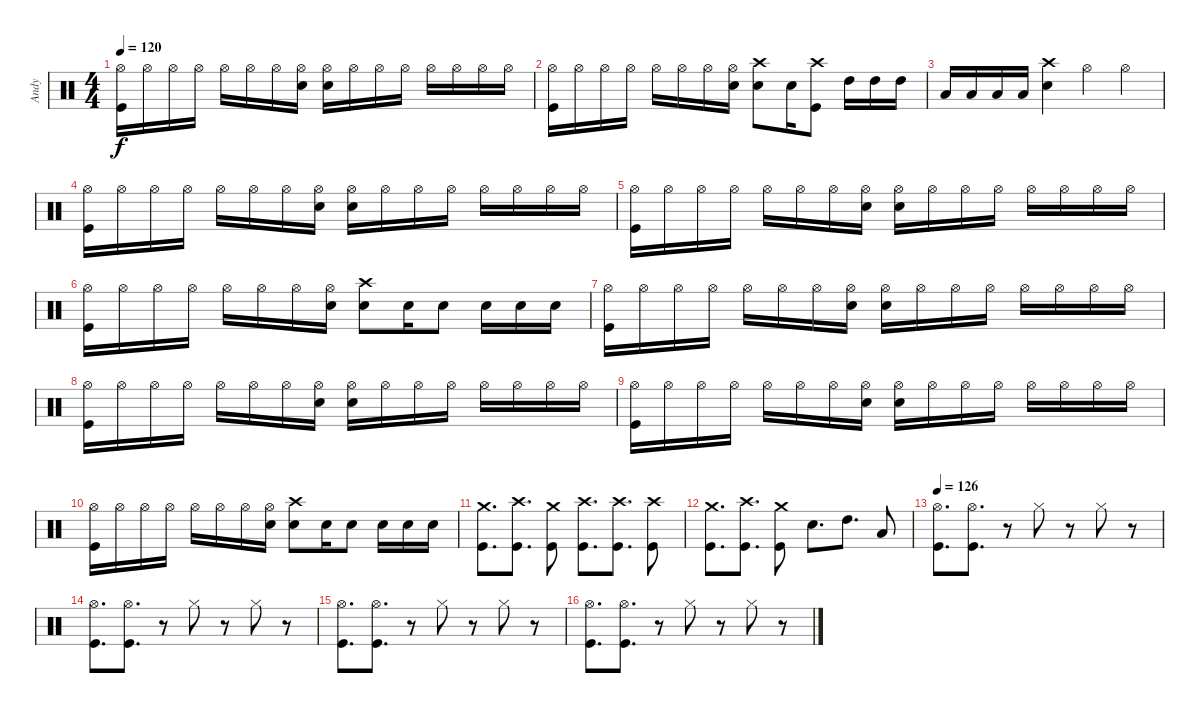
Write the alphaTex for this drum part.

\track ("Andy" "Andy") {instrument percussion}
\staff {score}
\articulation defaults
\ts (4 4)
\tempo 120
\clef neutral
\ks c
("Kick (hit)" "Hi-Hat (open)").16{dy f} "Hi-Hat (open)".16 "Hi-Hat (open)".16 "Hi-Hat (open)".16 "Hi-Hat (open)".16 "Hi-Hat (open)".16 "Hi-Hat (open)".16 ("Hi-Hat (open)" "Snare (hit) 2").16 ("Hi-Hat (open)" "Snare (hit) 2").16 "Hi-Hat (open)".16 "Hi-Hat (open)".16 "Hi-Hat (open)".16 "Hi-Hat (open)".16 "Hi-Hat (open)".16 "Hi-Hat (open)".16 "Hi-Hat (open)".16 |
("Kick (hit)" "Hi-Hat (open)").16 "Hi-Hat (open)".16 "Hi-Hat (open)".16 "Hi-Hat (open)".16 "Hi-Hat (open)".16 "Hi-Hat (open)".16 "Hi-Hat (open)".16 ("Hi-Hat (open)" "Snare (hit) 2").16 ("Snare (hit) 2" "Crash high (hit)").8 "Snare (hit) 2".16 ("Kick (hit)" "Crash high (hit)").8 "High Tom (hit)".16 "High Tom (hit)".16 "High Tom (hit)".16 |
"Low Floor Tom (hit)".16 "Low Floor Tom (hit)".16 "Low Floor Tom (hit)".16 "Low Floor Tom (hit)".16 ("Snare (hit) 2" "Crash high (hit)").4 "Hi-Hat (open)".4 "Hi-Hat (open)".4 |
("Kick (hit)" "Hi-Hat (open)").16 "Hi-Hat (open)".16 "Hi-Hat (open)".16 "Hi-Hat (open)".16 "Hi-Hat (open)".16 "Hi-Hat (open)".16 "Hi-Hat (open)".16 ("Hi-Hat (open)" "Snare (hit) 2").16 ("Hi-Hat (open)" "Snare (hit) 2").16 "Hi-Hat (open)".16 "Hi-Hat (open)".16 "Hi-Hat (open)".16 "Hi-Hat (open)".16 "Hi-Hat (open)".16 "Hi-Hat (open)".16 "Hi-Hat (open)".16 |
("Kick (hit)" "Hi-Hat (open)").16 "Hi-Hat (open)".16 "Hi-Hat (open)".16 "Hi-Hat (open)".16 "Hi-Hat (open)".16 "Hi-Hat (open)".16 "Hi-Hat (open)".16 ("Hi-Hat (open)" "Snare (hit) 2").16 ("Hi-Hat (open)" "Snare (hit) 2").16 "Hi-Hat (open)".16 "Hi-Hat (open)".16 "Hi-Hat (open)".16 "Hi-Hat (open)".16 "Hi-Hat (open)".16 "Hi-Hat (open)".16 "Hi-Hat (open)".16 |
("Kick (hit)" "Hi-Hat (open)").16 "Hi-Hat (open)".16 "Hi-Hat (open)".16 "Hi-Hat (open)".16 "Hi-Hat (open)".16 "Hi-Hat (open)".16 "Hi-Hat (open)".16 ("Hi-Hat (open)" "Snare (hit) 2").16 ("Snare (hit) 2" "Crash high (hit)").8 "Snare (hit) 2".16 "Snare (hit) 2".8 "Snare (hit) 2".16 "Snare (hit) 2".16 "Snare (hit) 2".16 |
("Kick (hit)" "Hi-Hat (open)").16 "Hi-Hat (open)".16 "Hi-Hat (open)".16 "Hi-Hat (open)".16 "Hi-Hat (open)".16 "Hi-Hat (open)".16 "Hi-Hat (open)".16 ("Hi-Hat (open)" "Snare (hit) 2").16 ("Hi-Hat (open)" "Snare (hit) 2").16 "Hi-Hat (open)".16 "Hi-Hat (open)".16 "Hi-Hat (open)".16 "Hi-Hat (open)".16 "Hi-Hat (open)".16 "Hi-Hat (open)".16 "Hi-Hat (open)".16 |
("Kick (hit)" "Hi-Hat (open)").16 "Hi-Hat (open)".16 "Hi-Hat (open)".16 "Hi-Hat (open)".16 "Hi-Hat (open)".16 "Hi-Hat (open)".16 "Hi-Hat (open)".16 ("Hi-Hat (open)" "Snare (hit) 2").16 ("Hi-Hat (open)" "Snare (hit) 2").16 "Hi-Hat (open)".16 "Hi-Hat (open)".16 "Hi-Hat (open)".16 "Hi-Hat (open)".16 "Hi-Hat (open)".16 "Hi-Hat (open)".16 "Hi-Hat (open)".16 |
("Kick (hit)" "Hi-Hat (open)").16 "Hi-Hat (open)".16 "Hi-Hat (open)".16 "Hi-Hat (open)".16 "Hi-Hat (open)".16 "Hi-Hat (open)".16 "Hi-Hat (open)".16 ("Hi-Hat (open)" "Snare (hit) 2").16 ("Hi-Hat (open)" "Snare (hit) 2").16 "Hi-Hat (open)".16 "Hi-Hat (open)".16 "Hi-Hat (open)".16 "Hi-Hat (open)".16 "Hi-Hat (open)".16 "Hi-Hat (open)".16 "Hi-Hat (open)".16 |
("Kick (hit)" "Hi-Hat (open)").16 "Hi-Hat (open)".16 "Hi-Hat (open)".16 "Hi-Hat (open)".16 "Hi-Hat (open)".16 "Hi-Hat (open)".16 "Hi-Hat (open)".16 ("Hi-Hat (open)" "Snare (hit) 2").16 ("Snare (hit) 2" "Crash high (hit)").8 "Snare (hit) 2".16 "Snare (hit) 2".8 "Snare (hit) 2".16 "Snare (hit) 2".16 "Snare (hit) 2".16 |
("Kick (hit)" "Crash medium (hit)").8{d} ("Crash high (hit)" "Kick (hit)").8{d} ("Crash medium (hit)" "Kick (hit)").8 ("Kick (hit)" "Crash high (hit)").8{d} ("Kick (hit)" "Crash high (hit)").8{d} ("Kick (hit)" "Crash high (hit)").8 |
("Kick (hit)" "Crash medium (hit)").8{d} ("Crash high (hit)" "Kick (hit)").8{d} ("Crash medium (hit)" "Kick (hit)").8 "Snare (hit) 2".8{d} "High Tom (hit)".8{d} "Low Floor Tom (hit)".8 |
\tempo 126
("Kick (hit)" "Hi-Hat (open)").8{d} ("Hi-Hat (open)" "Kick (hit)").8{d} r.8 "Hi-Hat (closed)".8 r.8 "Hi-Hat (closed)".8 r.8 |
("Kick (hit)" "Hi-Hat (open)").8{d} ("Hi-Hat (open)" "Kick (hit)").8{d} r.8 "Hi-Hat (closed)".8 r.8 "Hi-Hat (closed)".8 r.8 |
("Kick (hit)" "Hi-Hat (open)").8{d} ("Hi-Hat (open)" "Kick (hit)").8{d} r.8 "Hi-Hat (closed)".8 r.8 "Hi-Hat (closed)".8 r.8 |
("Kick (hit)" "Hi-Hat (open)").8{d} ("Hi-Hat (open)" "Kick (hit)").8{d} r.8 "Hi-Hat (closed)".8 r.8 "Hi-Hat (closed)".8 r.8
